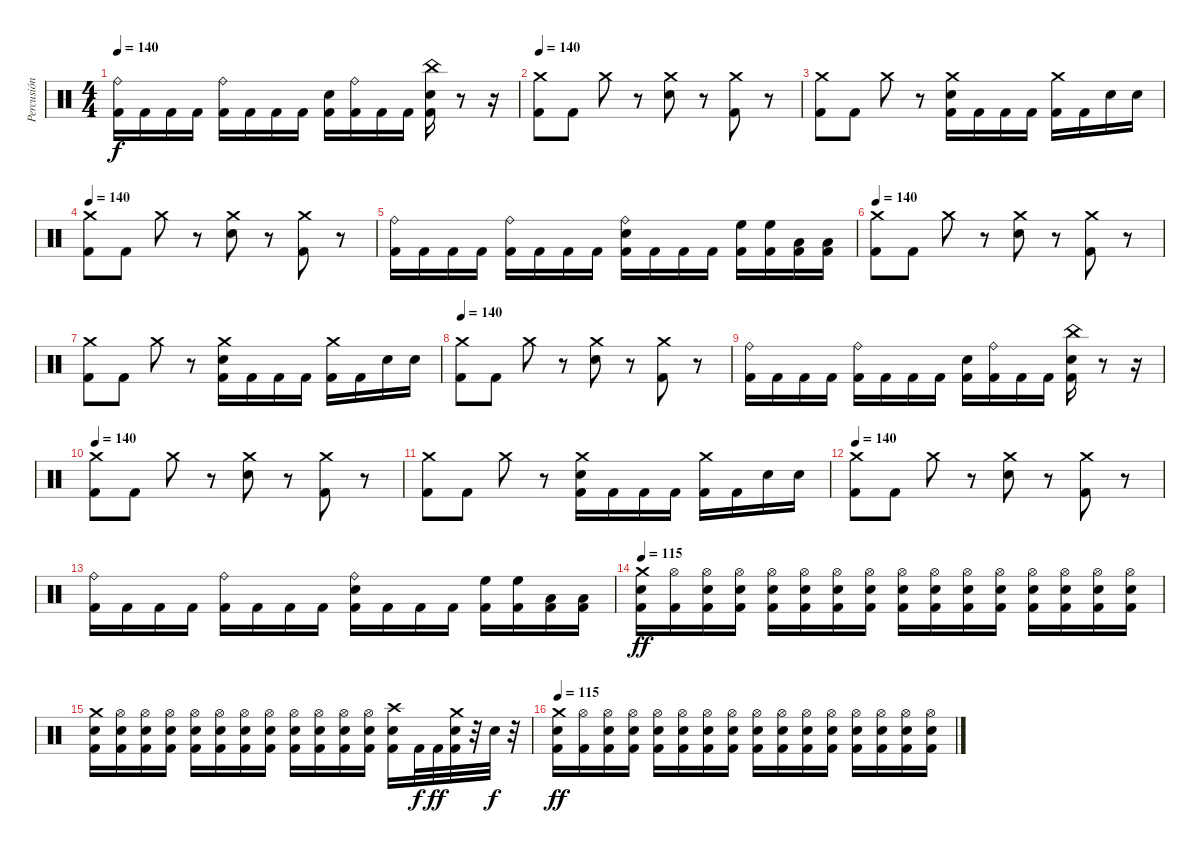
\track ("Percusión" "Percusión") {instrument percussion}
\staff {score}
\articulation defaults
\ts (4 4)
\tempo 140
\clef neutral
\ks c
("Ride (bell)" "Kick (hit) 2").16{dy f} "Kick (hit) 2".16 "Kick (hit) 2".16 "Kick (hit) 2".16 ("Ride (bell)" "Kick (hit) 2").16 "Kick (hit) 2".16 "Kick (hit) 2".16 "Kick (hit) 2".16 ("Electric Snare (hit)" "Kick (hit) 2").16 ("Ride (bell)" "Kick (hit) 2").16 "Kick (hit) 2".16 "Kick (hit) 2".16 ("China (hit)" "Electric Snare (hit)" "Kick (hit) 2").16 r.8 r.16 |
\tempo 140
("Crash medium (hit)" "Kick (hit) 2").8 "Kick (hit) 2".8 "Crash medium (hit)".8 r.8 ("Crash medium (hit)" "Electric Snare (hit)").8 r.8 ("Crash medium (hit)" "Kick (hit) 2").8 r.8 |
("Crash medium (hit)" "Kick (hit) 2").8 "Kick (hit) 2".8 "Crash medium (hit)".8 r.8 ("Crash medium (hit)" "Electric Snare (hit)" "Kick (hit) 2").16 "Kick (hit) 2".16 "Kick (hit) 2".16 "Kick (hit) 2".16 ("Crash medium (hit)" "Kick (hit) 2").16 "Kick (hit) 2".16 "Electric Snare (hit)".16 "Electric Snare (hit)".16 |
\tempo 140
("Crash medium (hit)" "Kick (hit) 2").8 "Kick (hit) 2".8 "Crash medium (hit)".8 r.8 ("Crash medium (hit)" "Electric Snare (hit)").8 r.8 ("Crash medium (hit)" "Kick (hit) 2").8 r.8 |
("Ride (bell)" "Kick (hit) 2").16 "Kick (hit) 2".16 "Kick (hit) 2".16 "Kick (hit) 2".16 ("Ride (bell)" "Kick (hit) 2").16 "Kick (hit) 2".16 "Kick (hit) 2".16 "Kick (hit) 2".16 ("Ride (bell)" "Electric Snare (hit)" "Kick (hit) 2").16 "Kick (hit) 2".16 "Kick (hit) 2".16 "Kick (hit) 2".16 ("High Floor Tom (hit)" "Kick (hit) 2").16 ("High Floor Tom (hit)" "Kick (hit) 2").16 ("Low Tom (hit)" "Kick (hit) 2").16 ("Low Tom (hit)" "Kick (hit) 2").16 |
\tempo 140
("Crash medium (hit)" "Kick (hit) 2").8 "Kick (hit) 2".8 "Crash medium (hit)".8 r.8 ("Crash medium (hit)" "Electric Snare (hit)").8 r.8 ("Crash medium (hit)" "Kick (hit) 2").8 r.8 |
("Crash medium (hit)" "Kick (hit) 2").8 "Kick (hit) 2".8 "Crash medium (hit)".8 r.8 ("Crash medium (hit)" "Electric Snare (hit)" "Kick (hit) 2").16 "Kick (hit) 2".16 "Kick (hit) 2".16 "Kick (hit) 2".16 ("Crash medium (hit)" "Kick (hit) 2").16 "Kick (hit) 2".16 "Electric Snare (hit)".16 "Electric Snare (hit)".16 |
\tempo 140
("Crash medium (hit)" "Kick (hit) 2").8 "Kick (hit) 2".8 "Crash medium (hit)".8 r.8 ("Crash medium (hit)" "Electric Snare (hit)").8 r.8 ("Crash medium (hit)" "Kick (hit) 2").8 r.8 |
("Ride (bell)" "Kick (hit) 2").16 "Kick (hit) 2".16 "Kick (hit) 2".16 "Kick (hit) 2".16 ("Ride (bell)" "Kick (hit) 2").16 "Kick (hit) 2".16 "Kick (hit) 2".16 "Kick (hit) 2".16 ("Electric Snare (hit)" "Kick (hit) 2").16 ("Ride (bell)" "Kick (hit) 2").16 "Kick (hit) 2".16 "Kick (hit) 2".16 ("China (hit)" "Electric Snare (hit)" "Kick (hit) 2").16 r.8 r.16 |
\tempo 140
("Crash medium (hit)" "Kick (hit) 2").8 "Kick (hit) 2".8 "Crash medium (hit)".8 r.8 ("Crash medium (hit)" "Electric Snare (hit)").8 r.8 ("Crash medium (hit)" "Kick (hit) 2").8 r.8 |
("Crash medium (hit)" "Kick (hit) 2").8 "Kick (hit) 2".8 "Crash medium (hit)".8 r.8 ("Crash medium (hit)" "Electric Snare (hit)" "Kick (hit) 2").16 "Kick (hit) 2".16 "Kick (hit) 2".16 "Kick (hit) 2".16 ("Crash medium (hit)" "Kick (hit) 2").16 "Kick (hit) 2".16 "Electric Snare (hit)".16 "Electric Snare (hit)".16 |
\tempo 140
("Crash medium (hit)" "Kick (hit) 2").8 "Kick (hit) 2".8 "Crash medium (hit)".8 r.8 ("Crash medium (hit)" "Electric Snare (hit)").8 r.8 ("Crash medium (hit)" "Kick (hit) 2").8 r.8 |
("Ride (bell)" "Kick (hit) 2").16 "Kick (hit) 2".16 "Kick (hit) 2".16 "Kick (hit) 2".16 ("Ride (bell)" "Kick (hit) 2").16 "Kick (hit) 2".16 "Kick (hit) 2".16 "Kick (hit) 2".16 ("Ride (bell)" "Electric Snare (hit)" "Kick (hit) 2").16 "Kick (hit) 2".16 "Kick (hit) 2".16 "Kick (hit) 2".16 ("High Floor Tom (hit)" "Kick (hit) 2").16 ("High Floor Tom (hit)" "Kick (hit) 2").16 ("Low Tom (hit)" "Kick (hit) 2").16 ("Low Tom (hit)" "Kick (hit) 2").16 |
\tempo 115
("Crash medium (hit)" "Electric Snare (hit)" "Kick (hit) 2").16{dy ff} ("Hi-Hat (open)" "Kick (hit) 2").16 ("Hi-Hat (open)" "Electric Snare (hit)" "Kick (hit) 2").16 ("Hi-Hat (open)" "Electric Snare (hit)" "Kick (hit) 2").16 ("Hi-Hat (open)" "Electric Snare (hit)" "Kick (hit) 2").16 ("Hi-Hat (open)" "Electric Snare (hit)" "Kick (hit) 2").16 ("Hi-Hat (open)" "Electric Snare (hit)" "Kick (hit) 2").16 ("Hi-Hat (open)" "Electric Snare (hit)" "Kick (hit) 2").16 ("Hi-Hat (open)" "Electric Snare (hit)" "Kick (hit) 2").16 ("Hi-Hat (open)" "Electric Snare (hit)" "Kick (hit) 2").16 ("Hi-Hat (open)" "Electric Snare (hit)" "Kick (hit) 2").16 ("Hi-Hat (open)" "Electric Snare (hit)" "Kick (hit) 2").16 ("Hi-Hat (open)" "Electric Snare (hit)" "Kick (hit) 2").16 ("Hi-Hat (open)" "Electric Snare (hit)" "Kick (hit) 2").16 ("Hi-Hat (open)" "Electric Snare (hit)" "Kick (hit) 2").16 ("Hi-Hat (open)" "Electric Snare (hit)" "Kick (hit) 2").16 |
("Crash medium (hit)" "Electric Snare (hit)" "Kick (hit) 2").16 ("Hi-Hat (open)" "Electric Snare (hit)" "Kick (hit) 2").16 ("Hi-Hat (open)" "Electric Snare (hit)" "Kick (hit) 2").16 ("Hi-Hat (open)" "Electric Snare (hit)" "Kick (hit) 2").16 ("Hi-Hat (open)" "Electric Snare (hit)" "Kick (hit) 2").16 ("Hi-Hat (open)" "Electric Snare (hit)" "Kick (hit) 2").16 ("Hi-Hat (open)" "Electric Snare (hit)" "Kick (hit) 2").16 ("Hi-Hat (open)" "Electric Snare (hit)" "Kick (hit) 2").16 ("Hi-Hat (open)" "Electric Snare (hit)" "Kick (hit) 2").16 ("Hi-Hat (open)" "Electric Snare (hit)" "Kick (hit) 2").16 ("Hi-Hat (open)" "Electric Snare (hit)" "Kick (hit) 2").16 ("Hi-Hat (open)" "Electric Snare (hit)" "Kick (hit) 2").16 ("Crash high (hit)" "Electric Snare (hit)" "Kick (hit) 2").16 "Kick (hit) 2".32{dy f} "Kick (hit) 2".32{dy ff} ("Crash medium (hit)" "Electric Snare (hit)" "Kick (hit) 2").32 r.32 "Electric Snare (hit)".32{dy f} r.32 |
\tempo 115
("Crash medium (hit)" "Electric Snare (hit)" "Kick (hit) 2").16{dy ff} ("Hi-Hat (open)" "Kick (hit) 2").16 ("Hi-Hat (open)" "Electric Snare (hit)" "Kick (hit) 2").16 ("Hi-Hat (open)" "Electric Snare (hit)" "Kick (hit) 2").16 ("Hi-Hat (open)" "Electric Snare (hit)" "Kick (hit) 2").16 ("Hi-Hat (open)" "Electric Snare (hit)" "Kick (hit) 2").16 ("Hi-Hat (open)" "Electric Snare (hit)" "Kick (hit) 2").16 ("Hi-Hat (open)" "Electric Snare (hit)" "Kick (hit) 2").16 ("Hi-Hat (open)" "Electric Snare (hit)" "Kick (hit) 2").16 ("Hi-Hat (open)" "Electric Snare (hit)" "Kick (hit) 2").16 ("Hi-Hat (open)" "Electric Snare (hit)" "Kick (hit) 2").16 ("Hi-Hat (open)" "Electric Snare (hit)" "Kick (hit) 2").16 ("Hi-Hat (open)" "Electric Snare (hit)" "Kick (hit) 2").16 ("Hi-Hat (open)" "Electric Snare (hit)" "Kick (hit) 2").16 ("Hi-Hat (open)" "Electric Snare (hit)" "Kick (hit) 2").16 ("Hi-Hat (open)" "Electric Snare (hit)" "Kick (hit) 2").16
